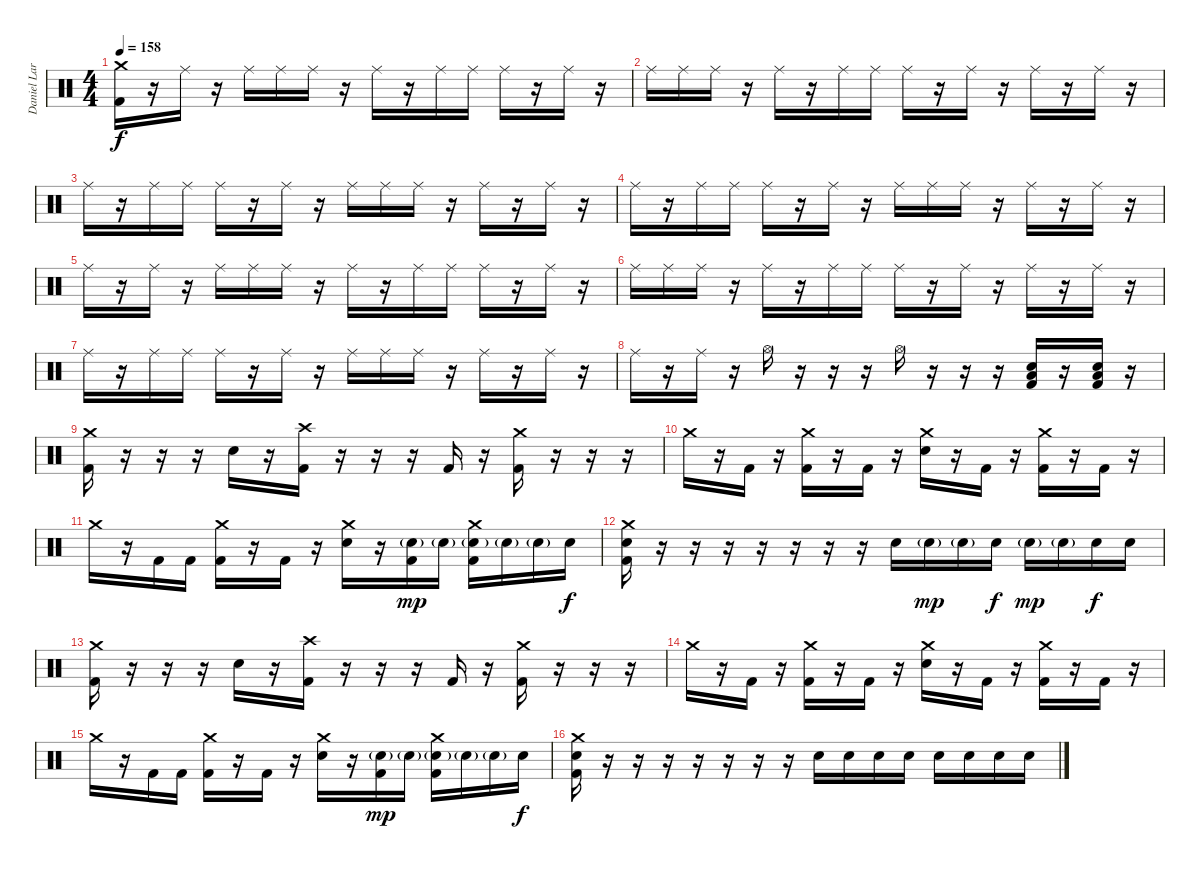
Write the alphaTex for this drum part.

\track ("Daniel Larsen" "Daniel Lar") {instrument percussion}
\staff {score}
\articulation defaults
\ts (4 4)
\tempo 158
\clef neutral
\ks c
("Crash medium (hit)" "Kick (hit) 2").16{dy f} r.16 "Ride (middle)".16 r.16 "Ride (middle)".16 "Ride (middle)".16 "Ride (middle)".16 r.16 "Ride (middle)".16 r.16 "Ride (middle)".16 "Ride (middle)".16 "Ride (middle)".16 r.16 "Ride (middle)".16 r.16 |
"Ride (middle)".16 "Ride (middle)".16 "Ride (middle)".16 r.16 "Ride (middle)".16 r.16 "Ride (middle)".16 "Ride (middle)".16 "Ride (middle)".16 r.16 "Ride (middle)".16 r.16 "Ride (middle)".16 r.16 "Ride (middle)".16 r.16 |
"Ride (middle)".16 r.16 "Ride (middle)".16 "Ride (middle)".16 "Ride (middle)".16 r.16 "Ride (middle)".16 r.16 "Ride (middle)".16 "Ride (middle)".16 "Ride (middle)".16 r.16 "Ride (middle)".16 r.16 "Ride (middle)".16 r.16 |
"Ride (middle)".16 r.16 "Ride (middle)".16 "Ride (middle)".16 "Ride (middle)".16 r.16 "Ride (middle)".16 r.16 "Ride (middle)".16 "Ride (middle)".16 "Ride (middle)".16 r.16 "Ride (middle)".16 r.16 "Ride (middle)".16 r.16 |
"Ride (middle)".16 r.16 "Ride (middle)".16 r.16 "Ride (middle)".16 "Ride (middle)".16 "Ride (middle)".16 r.16 "Ride (middle)".16 r.16 "Ride (middle)".16 "Ride (middle)".16 "Ride (middle)".16 r.16 "Ride (middle)".16 r.16 |
"Ride (middle)".16 "Ride (middle)".16 "Ride (middle)".16 r.16 "Ride (middle)".16 r.16 "Ride (middle)".16 "Ride (middle)".16 "Ride (middle)".16 r.16 "Ride (middle)".16 r.16 "Ride (middle)".16 r.16 "Ride (middle)".16 r.16 |
"Ride (middle)".16 r.16 "Ride (middle)".16 "Ride (middle)".16 "Ride (middle)".16 r.16 "Ride (middle)".16 r.16 "Ride (middle)".16 "Ride (middle)".16 "Ride (middle)".16 r.16 "Ride (middle)".16 r.16 "Ride (middle)".16 r.16 |
"Ride (middle)".16 r.16 "Ride (middle)".16 r.16 "Hi-Hat (open)".16 r.16 r.16 r.16 "Hi-Hat (open)".16 r.16 r.16 r.16 ("Low Floor Tom (hit)" "Electric Snare (hit)" "Kick (hit) 2").16 r.16 ("Low Floor Tom (hit)" "Electric Snare (hit)" "Kick (hit) 2").16 r.16 |
("Crash medium (hit)" "Kick (hit) 2").16 r.16 r.16 r.16 "Electric Snare (hit)".16 r.16 ("Crash high (hit)" "Kick (hit) 2").16 r.16 r.16 r.16 "Kick (hit) 2".16 r.16 ("Crash medium (hit)" "Kick (hit) 2").16 r.16 r.16 r.16 |
"Crash medium (hit)".16 r.16 "Kick (hit) 2".16 r.16 ("Crash medium (hit)" "Kick (hit) 2").16 r.16 "Kick (hit) 2".16 r.16 ("Crash medium (hit)" "Electric Snare (hit)").16 r.16 "Kick (hit) 2".16 r.16 ("Crash medium (hit)" "Kick (hit) 2").16 r.16 "Kick (hit) 2".16 r.16 |
"Crash medium (hit)".16 r.16 "Kick (hit) 2".16 "Kick (hit) 2".16 ("Crash medium (hit)" "Kick (hit) 2").16 r.16 "Kick (hit) 2".16 r.16 ("Crash medium (hit)" "Electric Snare (hit)").16 r.16 ("Electric Snare (hit)"{g} "Kick (hit) 2").16{dy mp} "Electric Snare (hit)"{g}.16 ("Crash medium (hit)" "Electric Snare (hit)"{g} "Kick (hit) 2").16 "Electric Snare (hit)"{g}.16 "Electric Snare (hit)"{g}.16 "Electric Snare (hit)".16{dy f} |
("Crash medium (hit)" "Electric Snare (hit)" "Kick (hit) 2").16 r.16 r.16 r.16 r.16 r.16 r.16 r.16 "Electric Snare (hit)".16 "Electric Snare (hit)"{g}.16{dy mp} "Electric Snare (hit)"{g}.16 "Electric Snare (hit)".16{dy f} "Electric Snare (hit)"{g}.16{dy mp} "Electric Snare (hit)"{g}.16 "Electric Snare (hit)".16{dy f} "Electric Snare (hit)".16 |
("Crash medium (hit)" "Kick (hit) 2").16 r.16 r.16 r.16 "Electric Snare (hit)".16 r.16 ("Crash high (hit)" "Kick (hit) 2").16 r.16 r.16 r.16 "Kick (hit) 2".16 r.16 ("Crash medium (hit)" "Kick (hit) 2").16 r.16 r.16 r.16 |
"Crash medium (hit)".16 r.16 "Kick (hit) 2".16 r.16 ("Crash medium (hit)" "Kick (hit) 2").16 r.16 "Kick (hit) 2".16 r.16 ("Crash medium (hit)" "Electric Snare (hit)").16 r.16 "Kick (hit) 2".16 r.16 ("Crash medium (hit)" "Kick (hit) 2").16 r.16 "Kick (hit) 2".16 r.16 |
"Crash medium (hit)".16 r.16 "Kick (hit) 2".16 "Kick (hit) 2".16 ("Crash medium (hit)" "Kick (hit) 2").16 r.16 "Kick (hit) 2".16 r.16 ("Crash medium (hit)" "Electric Snare (hit)").16 r.16 ("Electric Snare (hit)"{g} "Kick (hit) 2").16{dy mp} "Electric Snare (hit)"{g}.16 ("Crash medium (hit)" "Electric Snare (hit)"{g} "Kick (hit) 2").16 "Electric Snare (hit)"{g}.16 "Electric Snare (hit)"{g}.16 "Electric Snare (hit)".16{dy f} |
("Crash medium (hit)" "Electric Snare (hit)" "Kick (hit) 2").16 r.16 r.16 r.16 r.16 r.16 r.16 r.16 "Electric Snare (hit)".16 "Electric Snare (hit)".16 "Electric Snare (hit)".16 "Electric Snare (hit)".16 "Electric Snare (hit)".16 "Electric Snare (hit)".16 "Electric Snare (hit)".16 "Electric Snare (hit)".16
